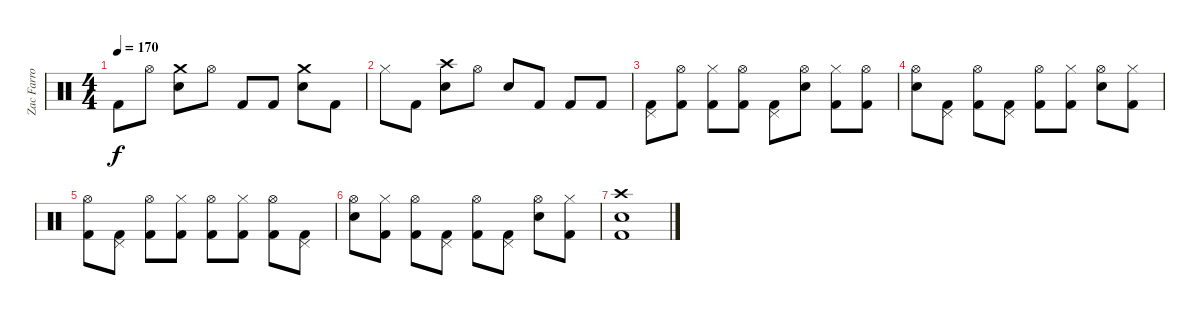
\track ("Zac Farro Drums" "Zac Farro ") {instrument percussion}
\staff {score}
\articulation defaults
\ts (4 4)
\tempo 170
\clef neutral
\ks c "Kick (hit) 2".8{dy f} "Hi-Hat (open)".8
("Crash medium (hit)" "Electric Snare (hit)").8 "Hi-Hat (open)".8 "Kick (hit) 2".8 "Kick (hit) 2".8 ("Crash medium (hit)" "Electric Snare (hit)").8 "Kick (hit) 2".8 |
"Hi-Hat (closed)".8 "Kick (hit) 2".8 ("Crash high (hit)" "Electric Snare (hit)").8 "Hi-Hat (open)".8 "Electric Snare (hit)".8 "Kick (hit) 2".8 "Kick (hit) 2".8 "Kick (hit) 2".8 |
("Pedal Hi-Hat (hit)" "Kick (hit) 2").8 ("Kick (hit) 2" "Hi-Hat (open)").8 ("Hi-Hat (closed)" "Kick (hit) 2").8 ("Kick (hit) 2" "Hi-Hat (open)").8 ("Pedal Hi-Hat (hit)" "Kick (hit) 2").8 ("Electric Snare (hit)" "Hi-Hat (open)").8 ("Hi-Hat (closed)" "Kick (hit) 2").8 ("Kick (hit) 2" "Hi-Hat (open)").8 |
("Electric Snare (hit)" "Hi-Hat (open)").8 ("Pedal Hi-Hat (hit)" "Kick (hit) 2").8 ("Kick (hit) 2" "Hi-Hat (open)").8 ("Pedal Hi-Hat (hit)" "Kick (hit) 2").8 ("Kick (hit) 2" "Hi-Hat (open)").8 ("Hi-Hat (closed)" "Kick (hit) 2").8 ("Electric Snare (hit)" "Hi-Hat (open)").8 ("Hi-Hat (closed)" "Kick (hit) 2").8 |
("Kick (hit) 2" "Hi-Hat (open)").8 ("Pedal Hi-Hat (hit)" "Kick (hit) 2").8 ("Kick (hit) 2" "Hi-Hat (open)").8 ("Hi-Hat (closed)" "Kick (hit) 2").8 ("Kick (hit) 2" "Hi-Hat (open)").8 ("Hi-Hat (closed)" "Kick (hit) 2").8 ("Kick (hit) 2" "Hi-Hat (open)").8 ("Pedal Hi-Hat (hit)" "Kick (hit) 2").8 |
("Electric Snare (hit)" "Hi-Hat (open)").8 ("Hi-Hat (closed)" "Kick (hit) 2").8 ("Kick (hit) 2" "Hi-Hat (open)").8 ("Pedal Hi-Hat (hit)" "Kick (hit) 2").8 ("Kick (hit) 2" "Hi-Hat (open)").8 ("Pedal Hi-Hat (hit)" "Kick (hit) 2").8 ("Electric Snare (hit)" "Hi-Hat (open)").8 ("Hi-Hat (closed)" "Kick (hit) 2").8 |
("Crash high (hit)" "Electric Snare (hit)" "Kick (hit) 2").1
